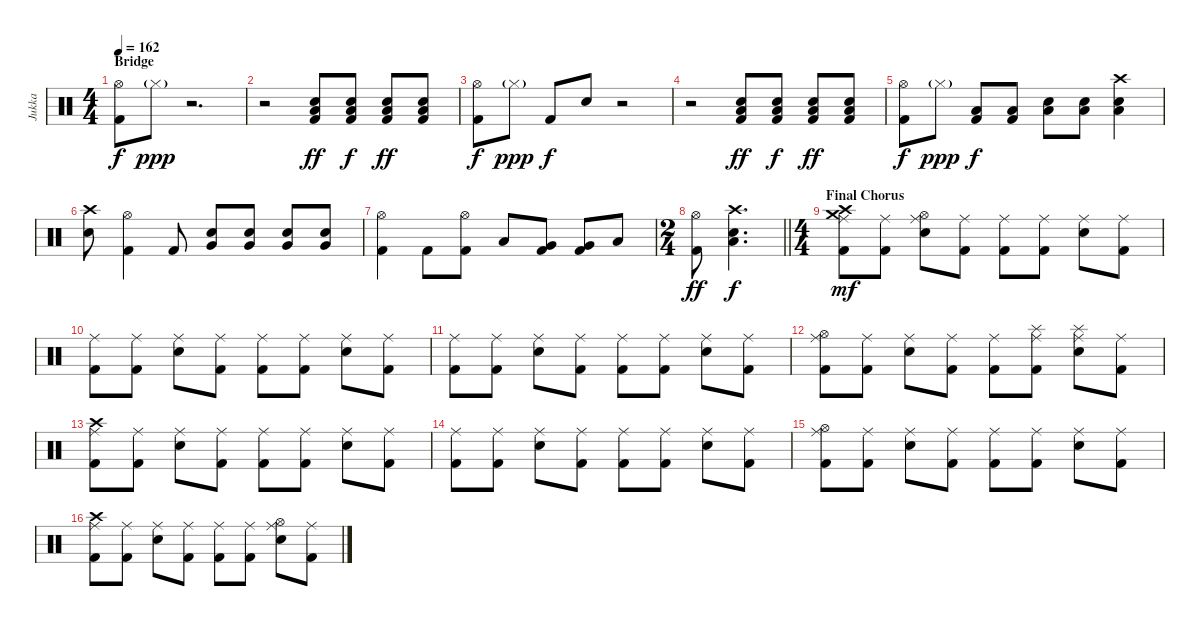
\track ("Jukka" "Jukka") {instrument percussion}
\staff {score}
\articulation defaults
\ts (4 4)
\section ("" "Bridge")
\tempo 162
\clef neutral
\ks c
("Hi-Hat (open)" "Kick (hit) 2").8{dy f} "Hi-Hat (closed)"{g}.8{dy ppp} r.2{d} |
r.2 ("Low Floor Tom (hit)" "Electric Snare (hit)" "Kick (hit) 2").8{dy ff} ("Low Floor Tom (hit)" "Electric Snare (hit)" "Kick (hit) 2").8{dy f} ("Low Floor Tom (hit)" "Electric Snare (hit)" "Kick (hit) 2").8{dy ff} ("Low Floor Tom (hit)" "Electric Snare (hit)" "Kick (hit) 2").8 |
("Hi-Hat (open)" "Kick (hit) 2").8{dy f} "Hi-Hat (closed)"{g}.8{dy ppp} "Kick (hit) 2".8{dy f} "Electric Snare (hit)".8 r.2 |
r.2 ("Low Floor Tom (hit)" "Electric Snare (hit)" "Kick (hit) 2").8{dy ff} ("Low Floor Tom (hit)" "Electric Snare (hit)" "Kick (hit) 2").8{dy f} ("Low Floor Tom (hit)" "Electric Snare (hit)" "Kick (hit) 2").8{dy ff} ("Low Floor Tom (hit)" "Electric Snare (hit)" "Kick (hit) 2").8 |
("Hi-Hat (open)" "Kick (hit) 2").8{dy f} "Hi-Hat (closed)"{g}.8{dy ppp} ("Low Floor Tom (hit)" "Kick (hit) 2").8{dy f} ("Low Floor Tom (hit)" "Kick (hit) 2").8 ("Low Floor Tom (hit)" "Electric Snare (hit)").8 ("Low Floor Tom (hit)" "Electric Snare (hit)").8 ("Crash high (hit)" "Low Floor Tom (hit)" "Electric Snare (hit)").4 |
("Crash high (hit)" "Electric Snare (hit)").8 ("Hi-Hat (open)" "Kick (hit) 2").4 "Kick (hit) 2".8 ("Electric Snare (hit)" "Very Low Tom (hit)").8 ("Electric Snare (hit)" "Very Low Tom (hit)").8 ("Electric Snare (hit)" "Very Low Tom (hit)").8 ("Electric Snare (hit)" "Very Low Tom (hit)").8 |
("Hi-Hat (open)" "Kick (hit) 2").4 "Kick (hit) 2".8 ("Hi-Hat (open)" "Kick (hit) 2").8 "Low Tom (hit)".8 ("Very Low Tom (hit)" "Kick (hit) 2").8 ("Very Low Tom (hit)" "Kick (hit) 2").8 "Low Floor Tom (hit)".8 |
\ts (2 4)
\barLineRight lightlight
("Hi-Hat (open)" "Kick (hit) 2").8{dy ff} ("Crash high (hit)" "Electric Snare (hit)" "Low Floor Tom (hit)").4{d dy f} |
\ts (4 4)
\section ("" "Final Chorus")
("Crash medium (hit)" "Crash high (hit)" "Ride (middle)" "Kick (hit) 2").8{dy mf} ("Ride (middle)" "Kick (hit) 2").8 ("Hi-Hat (open)" "Ride (middle)" "Electric Snare (hit)").8 ("Ride (middle)" "Kick (hit) 2").8 ("Ride (middle)" "Kick (hit) 2").8 ("Ride (middle)" "Kick (hit) 2").8 ("Ride (middle)" "Electric Snare (hit)").8 ("Ride (middle)" "Kick (hit) 2").8 |
("Ride (middle)" "Kick (hit) 2").8 ("Ride (middle)" "Kick (hit) 2").8 ("Ride (middle)" "Electric Snare (hit)").8 ("Ride (middle)" "Kick (hit) 2").8 ("Ride (middle)" "Kick (hit) 2").8 ("Ride (middle)" "Kick (hit) 2").8 ("Ride (middle)" "Electric Snare (hit)").8 ("Ride (middle)" "Kick (hit) 2").8 |
("Ride (middle)" "Kick (hit) 2").8 ("Ride (middle)" "Kick (hit) 2").8 ("Ride (middle)" "Electric Snare (hit)").8 ("Ride (middle)" "Kick (hit) 2").8 ("Ride (middle)" "Kick (hit) 2").8 ("Ride (middle)" "Kick (hit) 2").8 ("Ride (middle)" "Electric Snare (hit)").8 ("Ride (middle)" "Kick (hit) 2").8 |
("Hi-Hat (open)" "Ride (middle)" "Kick (hit) 2").8 ("Ride (middle)" "Kick (hit) 2").8 ("Ride (middle)" "Electric Snare (hit)").8 ("Ride (middle)" "Kick (hit) 2").8 ("Ride (middle)" "Kick (hit) 2").8 ("Splash (hit)" "Ride (middle)" "Kick (hit) 2").8 ("Splash (hit)" "Ride (middle)" "Electric Snare (hit)").8 ("Ride (middle)" "Kick (hit) 2").8 |
("Crash high (hit)" "Ride (middle)" "Kick (hit) 2").8 ("Ride (middle)" "Kick (hit) 2").8 ("Ride (middle)" "Electric Snare (hit)").8 ("Ride (middle)" "Kick (hit) 2").8 ("Ride (middle)" "Kick (hit) 2").8 ("Ride (middle)" "Kick (hit) 2").8 ("Ride (middle)" "Electric Snare (hit)").8 ("Ride (middle)" "Kick (hit) 2").8 |
("Ride (middle)" "Kick (hit) 2").8 ("Ride (middle)" "Kick (hit) 2").8 ("Ride (middle)" "Electric Snare (hit)").8 ("Ride (middle)" "Kick (hit) 2").8 ("Ride (middle)" "Kick (hit) 2").8 ("Ride (middle)" "Kick (hit) 2").8 ("Ride (middle)" "Electric Snare (hit)").8 ("Ride (middle)" "Kick (hit) 2").8 |
("Hi-Hat (open)" "Ride (middle)" "Kick (hit) 2").8 ("Ride (middle)" "Kick (hit) 2").8 ("Ride (middle)" "Electric Snare (hit)").8 ("Ride (middle)" "Kick (hit) 2").8 ("Ride (middle)" "Kick (hit) 2").8 ("Ride (middle)" "Kick (hit) 2").8 ("Ride (middle)" "Electric Snare (hit)").8 ("Ride (middle)" "Kick (hit) 2").8 |
("Crash high (hit)" "Ride (middle)" "Kick (hit) 2").8 ("Ride (middle)" "Kick (hit) 2").8 ("Ride (middle)" "Electric Snare (hit)").8 ("Ride (middle)" "Kick (hit) 2").8 ("Ride (middle)" "Kick (hit) 2").8 ("Ride (middle)" "Kick (hit) 2").8 ("Hi-Hat (open)" "Ride (middle)" "Electric Snare (hit)").8 ("Ride (middle)" "Kick (hit) 2").8
